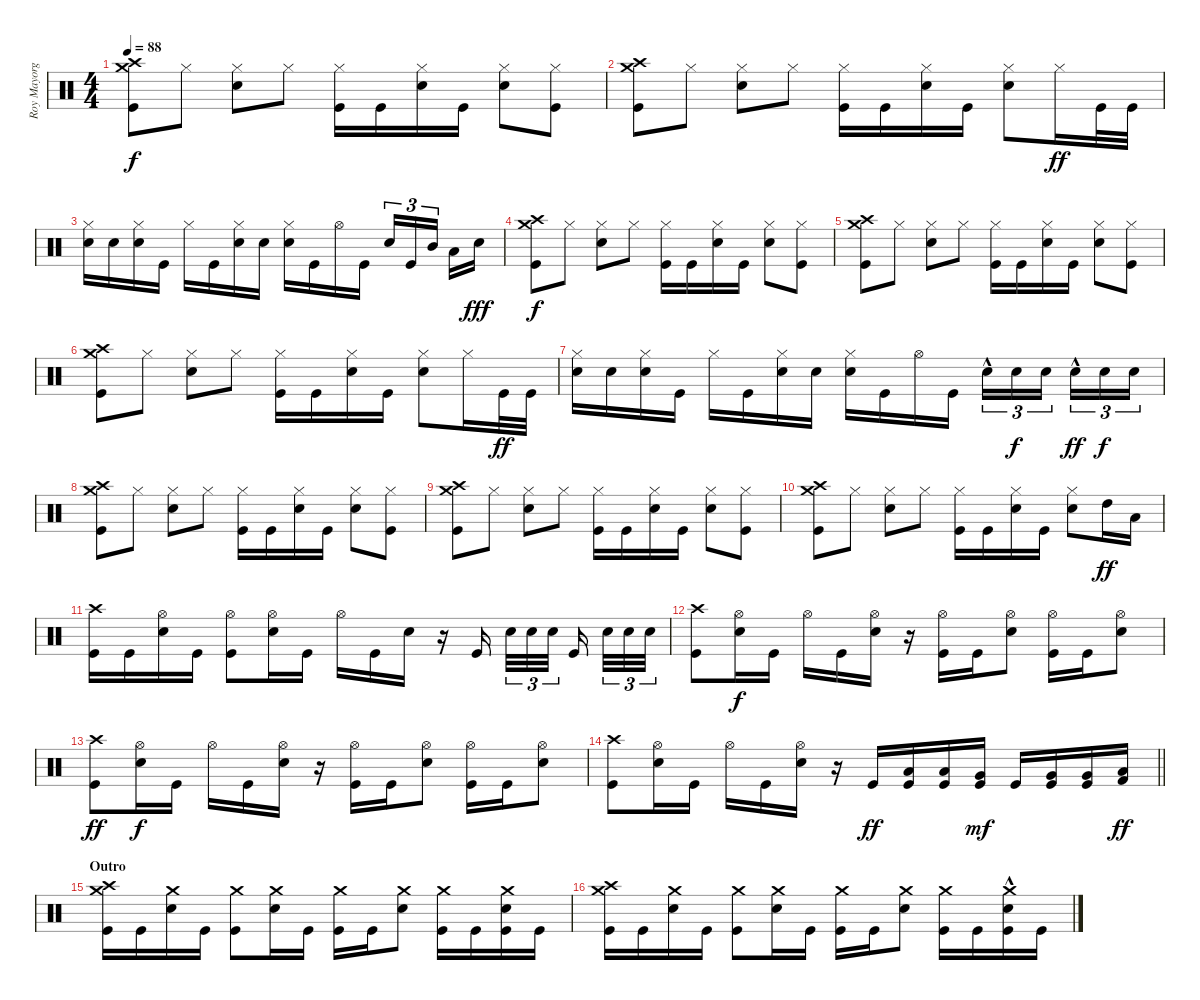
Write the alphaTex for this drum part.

\track ("Roy Mayorga" "Roy Mayorg") {instrument percussion}
\staff {score}
\articulation defaults
\ts (4 4)
\tempo 88
\clef neutral
\ks c
("Crash medium (hit)" "Crash high (hit)" "Kick (hit)").8{dy f} "Hi-Hat (closed)".8 ("Hi-Hat (closed)" "Snare (hit) 2").8 "Hi-Hat (closed)".8 ("Hi-Hat (closed)" "Kick (hit)").16 "Kick (hit)".16 ("Hi-Hat (closed)" "Snare (hit) 2").16 "Kick (hit)".16 ("Hi-Hat (closed)" "Snare (hit) 2").8 ("Hi-Hat (closed)" "Kick (hit)").8 |
("Crash medium (hit)" "Crash high (hit)" "Kick (hit)").8 "Hi-Hat (closed)".8 ("Hi-Hat (closed)" "Snare (hit) 2").8 "Hi-Hat (closed)".8 ("Hi-Hat (closed)" "Kick (hit)").16 "Kick (hit)".16 ("Hi-Hat (closed)" "Snare (hit) 2").16 "Kick (hit)".16 ("Hi-Hat (closed)" "Snare (hit) 2").8 "Hi-Hat (closed)".16{dy ff} "Kick (hit)".32 "Kick (hit)".32 |
("Hi-Hat (closed)" "Snare (hit) 2").16 "Snare (hit) 2".16 ("Hi-Hat (closed)" "Snare (hit) 2").16 "Kick (hit)".16 "Hi-Hat (closed)".16 "Kick (hit)".16 ("Hi-Hat (closed)" "Snare (hit) 2").16 "Snare (hit) 2".16 ("Hi-Hat (closed)" "Snare (hit) 2").16 "Kick (hit)".16 "Hi-Hat (open)".16 "Kick (hit)".16 "Snare (hit) 2".16{tu (3 2)} "Kick (hit)".16{tu (3 2)} "Mid Tom (hit)".16{tu (3 2) beam splitsecondary} "Low Tom (hit)".16 "Snare (hit) 2".16{dy fff} |
("Crash medium (hit)" "Crash high (hit)" "Kick (hit)").8{dy f} "Hi-Hat (closed)".8 ("Hi-Hat (closed)" "Snare (hit) 2").8 "Hi-Hat (closed)".8 ("Hi-Hat (closed)" "Kick (hit)").16 "Kick (hit)".16 ("Hi-Hat (closed)" "Snare (hit) 2").16 "Kick (hit)".16 ("Hi-Hat (closed)" "Snare (hit) 2").8 ("Hi-Hat (closed)" "Kick (hit)").8 |
("Crash medium (hit)" "Crash high (hit)" "Kick (hit)").8 "Hi-Hat (closed)".8 ("Hi-Hat (closed)" "Snare (hit) 2").8 "Hi-Hat (closed)".8 ("Hi-Hat (closed)" "Kick (hit)").16 "Kick (hit)".16 ("Hi-Hat (closed)" "Snare (hit) 2").16 "Kick (hit)".16 ("Hi-Hat (closed)" "Snare (hit) 2").8 ("Hi-Hat (closed)" "Kick (hit)").8 |
("Crash medium (hit)" "Crash high (hit)" "Kick (hit)").8 "Hi-Hat (closed)".8 ("Hi-Hat (closed)" "Snare (hit) 2").8 "Hi-Hat (closed)".8 ("Hi-Hat (closed)" "Kick (hit)").16 "Kick (hit)".16 ("Hi-Hat (closed)" "Snare (hit) 2").16 "Kick (hit)".16 ("Hi-Hat (closed)" "Snare (hit) 2").8 "Hi-Hat (closed)".16 "Kick (hit)".32{dy ff} "Kick (hit)".32 |
("Hi-Hat (closed)" "Snare (hit) 2").16 "Snare (hit) 2".16 ("Hi-Hat (closed)" "Snare (hit) 2").16 "Kick (hit)".16 "Hi-Hat (closed)".16 "Kick (hit)".16 ("Hi-Hat (closed)" "Snare (hit) 2").16 "Snare (hit) 2".16 ("Hi-Hat (closed)" "Snare (hit) 2").16 "Kick (hit)".16 "Hi-Hat (open)".16 "Kick (hit)".16 "Snare (hit) 2"{hac}.16{tu (3 2)} "Snare (hit) 2".16{tu (3 2) dy f} "Snare (hit) 2".16{tu (3 2) beam splitsecondary} "Snare (hit) 2"{hac}.16{tu (3 2) dy ff} "Snare (hit) 2".16{tu (3 2) dy f} "Snare (hit) 2".16{tu (3 2)} |
("Crash medium (hit)" "Crash high (hit)" "Kick (hit)").8 "Hi-Hat (closed)".8 ("Hi-Hat (closed)" "Snare (hit) 2").8 "Hi-Hat (closed)".8 ("Hi-Hat (closed)" "Kick (hit)").16 "Kick (hit)".16 ("Hi-Hat (closed)" "Snare (hit) 2").16 "Kick (hit)".16 ("Hi-Hat (closed)" "Snare (hit) 2").8 ("Hi-Hat (closed)" "Kick (hit)").8 |
("Crash medium (hit)" "Crash high (hit)" "Kick (hit)").8 "Hi-Hat (closed)".8 ("Hi-Hat (closed)" "Snare (hit) 2").8 "Hi-Hat (closed)".8 ("Hi-Hat (closed)" "Kick (hit)").16 "Kick (hit)".16 ("Hi-Hat (closed)" "Snare (hit) 2").16 "Kick (hit)".16 ("Hi-Hat (closed)" "Snare (hit) 2").8 ("Hi-Hat (closed)" "Kick (hit)").8 |
("Crash medium (hit)" "Crash high (hit)" "Kick (hit)").8 "Hi-Hat (closed)".8 ("Hi-Hat (closed)" "Snare (hit) 2").8 "Hi-Hat (closed)".8 ("Hi-Hat (closed)" "Kick (hit)").16 "Kick (hit)".16 ("Hi-Hat (closed)" "Snare (hit) 2").16 "Kick (hit)".16 ("Hi-Hat (closed)" "Snare (hit) 2").8 "High Tom (hit)".16{dy ff} "Low Tom (hit)".16 |
("Crash high (hit)" "Kick (hit)").16 "Kick (hit)".16 ("Hi-Hat (open)" "Snare (hit) 2").16 "Kick (hit)".16 ("Hi-Hat (open)" "Kick (hit)").8 ("Hi-Hat (open)" "Snare (hit) 2").16 "Kick (hit)".16 "Hi-Hat (open)".16 "Kick (hit)".16 "Snare (hit) 2".16 r.16 "Kick (hit)".16{beam splitsecondary} "Snare (hit) 2".32{tu (3 2)} "Snare (hit) 2".32{tu (3 2)} "Snare (hit) 2".32{tu (3 2) beam splitsecondary} "Kick (hit)".16{beam splitsecondary} "Snare (hit) 2".32{tu (3 2)} "Snare (hit) 2".32{tu (3 2)} "Snare (hit) 2".32{tu (3 2)} |
("Crash high (hit)" "Kick (hit)").8 ("Hi-Hat (open)" "Snare (hit) 2").16{dy f} "Kick (hit)".16 "Hi-Hat (open)".16 "Kick (hit)".16 ("Hi-Hat (open)" "Snare (hit) 2").16 r.16 ("Hi-Hat (open)" "Kick (hit)").16 "Kick (hit)".16 ("Hi-Hat (open)" "Snare (hit) 2").8 ("Hi-Hat (open)" "Kick (hit)").16 "Kick (hit)".16 ("Hi-Hat (open)" "Snare (hit) 2").8 |
("Crash high (hit)" "Kick (hit)").8{dy ff} ("Hi-Hat (open)" "Snare (hit) 2").16{dy f} "Kick (hit)".16 "Hi-Hat (open)".16 "Kick (hit)".16 ("Hi-Hat (open)" "Snare (hit) 2").16 r.16 ("Hi-Hat (open)" "Kick (hit)").16 "Kick (hit)".16 ("Hi-Hat (open)" "Snare (hit) 2").8 ("Hi-Hat (open)" "Kick (hit)").16 "Kick (hit)".16 ("Hi-Hat (open)" "Snare (hit) 2").8 |
\barLineRight lightlight
("Crash high (hit)" "Kick (hit)").8 ("Hi-Hat (open)" "Snare (hit) 2").16 "Kick (hit)".16 "Hi-Hat (open)".16 "Kick (hit)".16 ("Hi-Hat (open)" "Snare (hit) 2").16 r.16 "Kick (hit)".16{dy ff} ("Low Tom (hit)" "Kick (hit)").16 ("Low Tom (hit)" "Kick (hit)").16 ("Very Low Tom (hit)" "Kick (hit)").16{dy mf} "Kick (hit)".16 ("Very Low Tom (hit)" "Kick (hit)").16 ("Very Low Tom (hit)" "Kick (hit)").16 ("Low Floor Tom (hit)" "Kick (hit) 2").16{dy ff} |
\section ("" "Outro")
("Crash high (hit)" "Crash medium (hit)" "Kick (hit)").16 "Kick (hit)".16 ("Crash medium (hit)" "Snare (hit) 2").16 "Kick (hit)".16 ("Crash medium (hit)" "Kick (hit)").8 ("Crash medium (hit)" "Snare (hit) 2").16 "Kick (hit)".16 ("Crash medium (hit)" "Kick (hit)").16 "Kick (hit)".16 ("Crash medium (hit)" "Snare (hit) 2").8 ("Crash medium (hit)" "Kick (hit)").16 "Kick (hit)".16 ("Crash medium (hit)" "Snare (hit) 2" "Kick (hit)").16 "Kick (hit)".16 |
("Crash high (hit)" "Crash medium (hit)" "Kick (hit)").16 "Kick (hit)".16 ("Crash medium (hit)" "Snare (hit) 2").16 "Kick (hit)".16 ("Crash medium (hit)" "Kick (hit)").8 ("Crash medium (hit)" "Snare (hit) 2").16 "Kick (hit)".16 ("Crash medium (hit)" "Kick (hit)").16 "Kick (hit)".16 ("Crash medium (hit)" "Snare (hit) 2").8 ("Crash medium (hit)" "Kick (hit)").16 "Kick (hit)".16 ("Crash medium (hit)"{hac} "Snare (hit) 2" "Kick (hit)").16 "Kick (hit)".16
